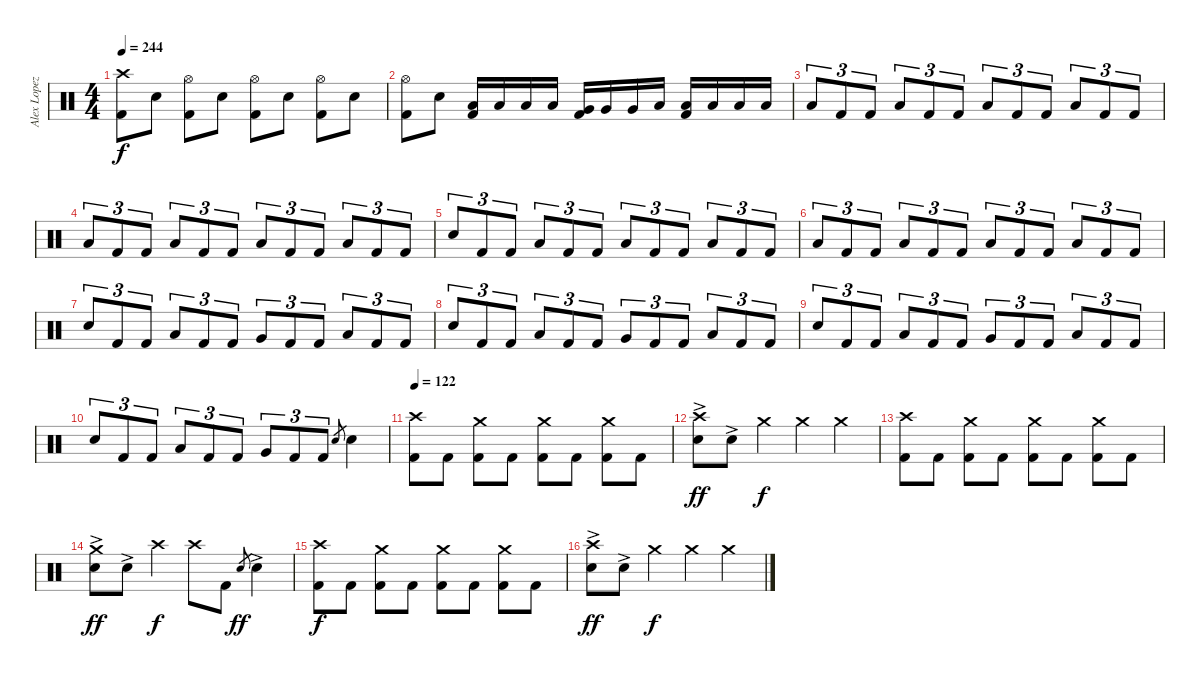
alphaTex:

\track ("Alex Lopez" "Alex Lopez") {instrument percussion}
\staff {score}
\articulation defaults
\ts (4 4)
\tempo 244
\clef neutral
\ks c
("Crash high (hit)" "Kick (hit) 2").8{dy f} "Snare (hit) 2".8 ("Hi-Hat (open)" "Kick (hit) 2").8 "Snare (hit) 2".8 ("Hi-Hat (open)" "Kick (hit) 2").8 "Snare (hit) 2".8 ("Hi-Hat (open)" "Kick (hit) 2").8 "Snare (hit) 2".8 |
("Hi-Hat (open)" "Kick (hit) 2").8 "Snare (hit) 2".8 ("Low Tom (hit)" "Kick (hit) 2").16 "Low Tom (hit)".16 "Low Tom (hit)".16 "Low Tom (hit)".16 ("Very Low Tom (hit)" "Kick (hit) 2").16 "Very Low Tom (hit)".16 "Very Low Tom (hit)".16 "Low Floor Tom (hit)".16 ("Low Floor Tom (hit)" "Kick (hit) 2").16 "Low Floor Tom (hit)".16 "Low Floor Tom (hit)".16 "Low Floor Tom (hit)".16 |
"Low Floor Tom (hit)".8{tu (3 2)} "Kick (hit) 2".8{tu (3 2)} "Kick (hit) 2".8{tu (3 2)} "Low Floor Tom (hit)".8{tu (3 2)} "Kick (hit) 2".8{tu (3 2)} "Kick (hit) 2".8{tu (3 2)} "Low Floor Tom (hit)".8{tu (3 2)} "Kick (hit) 2".8{tu (3 2)} "Kick (hit) 2".8{tu (3 2)} "Low Floor Tom (hit)".8{tu (3 2)} "Kick (hit) 2".8{tu (3 2)} "Kick (hit) 2".8{tu (3 2)} |
"Low Floor Tom (hit)".8{tu (3 2)} "Kick (hit) 2".8{tu (3 2)} "Kick (hit) 2".8{tu (3 2)} "Low Floor Tom (hit)".8{tu (3 2)} "Kick (hit) 2".8{tu (3 2)} "Kick (hit) 2".8{tu (3 2)} "Low Floor Tom (hit)".8{tu (3 2)} "Kick (hit) 2".8{tu (3 2)} "Kick (hit) 2".8{tu (3 2)} "Low Floor Tom (hit)".8{tu (3 2)} "Kick (hit) 2".8{tu (3 2)} "Kick (hit) 2".8{tu (3 2)} |
"Snare (hit) 2".8{tu (3 2)} "Kick (hit) 2".8{tu (3 2)} "Kick (hit) 2".8{tu (3 2)} "Low Floor Tom (hit)".8{tu (3 2)} "Kick (hit) 2".8{tu (3 2)} "Kick (hit) 2".8{tu (3 2)} "Low Floor Tom (hit)".8{tu (3 2)} "Kick (hit) 2".8{tu (3 2)} "Kick (hit) 2".8{tu (3 2)} "Low Floor Tom (hit)".8{tu (3 2)} "Kick (hit) 2".8{tu (3 2)} "Kick (hit) 2".8{tu (3 2)} |
"Low Floor Tom (hit)".8{tu (3 2)} "Kick (hit) 2".8{tu (3 2)} "Kick (hit) 2".8{tu (3 2)} "Low Floor Tom (hit)".8{tu (3 2)} "Kick (hit) 2".8{tu (3 2)} "Kick (hit) 2".8{tu (3 2)} "Low Floor Tom (hit)".8{tu (3 2)} "Kick (hit) 2".8{tu (3 2)} "Kick (hit) 2".8{tu (3 2)} "Low Floor Tom (hit)".8{tu (3 2)} "Kick (hit) 2".8{tu (3 2)} "Kick (hit) 2".8{tu (3 2)} |
"Snare (hit) 2".8{tu (3 2)} "Kick (hit) 2".8{tu (3 2)} "Kick (hit) 2".8{tu (3 2)} "Low Tom (hit)".8{tu (3 2)} "Kick (hit) 2".8{tu (3 2)} "Kick (hit) 2".8{tu (3 2)} "Very Low Tom (hit)".8{tu (3 2)} "Kick (hit) 2".8{tu (3 2)} "Kick (hit) 2".8{tu (3 2)} "Low Floor Tom (hit)".8{tu (3 2)} "Kick (hit) 2".8{tu (3 2)} "Kick (hit) 2".8{tu (3 2)} |
"Snare (hit) 2".8{tu (3 2)} "Kick (hit) 2".8{tu (3 2)} "Kick (hit) 2".8{tu (3 2)} "Low Tom (hit)".8{tu (3 2)} "Kick (hit) 2".8{tu (3 2)} "Kick (hit) 2".8{tu (3 2)} "Very Low Tom (hit)".8{tu (3 2)} "Kick (hit) 2".8{tu (3 2)} "Kick (hit) 2".8{tu (3 2)} "Low Floor Tom (hit)".8{tu (3 2)} "Kick (hit) 2".8{tu (3 2)} "Kick (hit) 2".8{tu (3 2)} |
"Snare (hit) 2".8{tu (3 2)} "Kick (hit) 2".8{tu (3 2)} "Kick (hit) 2".8{tu (3 2)} "Low Tom (hit)".8{tu (3 2)} "Kick (hit) 2".8{tu (3 2)} "Kick (hit) 2".8{tu (3 2)} "Very Low Tom (hit)".8{tu (3 2)} "Kick (hit) 2".8{tu (3 2)} "Kick (hit) 2".8{tu (3 2)} "Low Floor Tom (hit)".8{tu (3 2)} "Kick (hit) 2".8{tu (3 2)} "Kick (hit) 2".8{tu (3 2)} |
"Snare (hit) 2".8{tu (3 2)} "Kick (hit) 2".8{tu (3 2)} "Kick (hit) 2".8{tu (3 2)} "Low Tom (hit)".8{tu (3 2)} "Kick (hit) 2".8{tu (3 2)} "Kick (hit) 2".8{tu (3 2)} "Very Low Tom (hit)".8{tu (3 2)} "Kick (hit) 2".8{tu (3 2)} "Kick (hit) 2".8{tu (3 2)} "Snare (hit) 2".8{gr} "Snare (hit) 2".4 |
\tempo 122
("Crash high (hit)" "Kick (hit) 2").8 "Kick (hit) 2".8 ("Crash medium (hit)" "Kick (hit) 2").8 "Kick (hit) 2".8 ("Crash medium (hit)" "Kick (hit) 2").8 "Kick (hit) 2".8 ("Crash medium (hit)" "Kick (hit) 2").8 "Kick (hit) 2".8 |
("Crash high (hit)" "Electric Snare (hit)"{ac}).8{dy ff} "Electric Snare (hit)"{ac}.8 "Crash medium (hit)".4{dy f} "Crash medium (hit)".4 "Crash medium (hit)".4 |
("Crash high (hit)" "Kick (hit) 2").8 "Kick (hit) 2".8 ("Crash medium (hit)" "Kick (hit) 2").8 "Kick (hit) 2".8 ("Crash medium (hit)" "Kick (hit) 2").8 "Kick (hit) 2".8 ("Crash medium (hit)" "Kick (hit) 2").8 "Kick (hit) 2".8 |
("Crash medium (hit)" "Electric Snare (hit)"{ac}).8{dy ff balance 0} "Electric Snare (hit)"{ac}.8 "Crash high (hit)".4{dy f} "Crash high (hit)".8 "Kick (hit) 2".8 "Electric Snare (hit)".8{gr dy ff} "Electric Snare (hit)"{ac}.4 |
("Crash high (hit)" "Kick (hit) 2").8{dy f balance 8} "Kick (hit) 2".8 ("Crash medium (hit)" "Kick (hit) 2").8 "Kick (hit) 2".8 ("Crash medium (hit)" "Kick (hit) 2").8 "Kick (hit) 2".8 ("Crash medium (hit)" "Kick (hit) 2").8 "Kick (hit) 2".8 |
("Crash high (hit)" "Electric Snare (hit)"{ac}).8{dy ff} "Electric Snare (hit)"{ac}.8 "Crash medium (hit)".4{dy f} "Crash medium (hit)".4 "Crash medium (hit)".4
